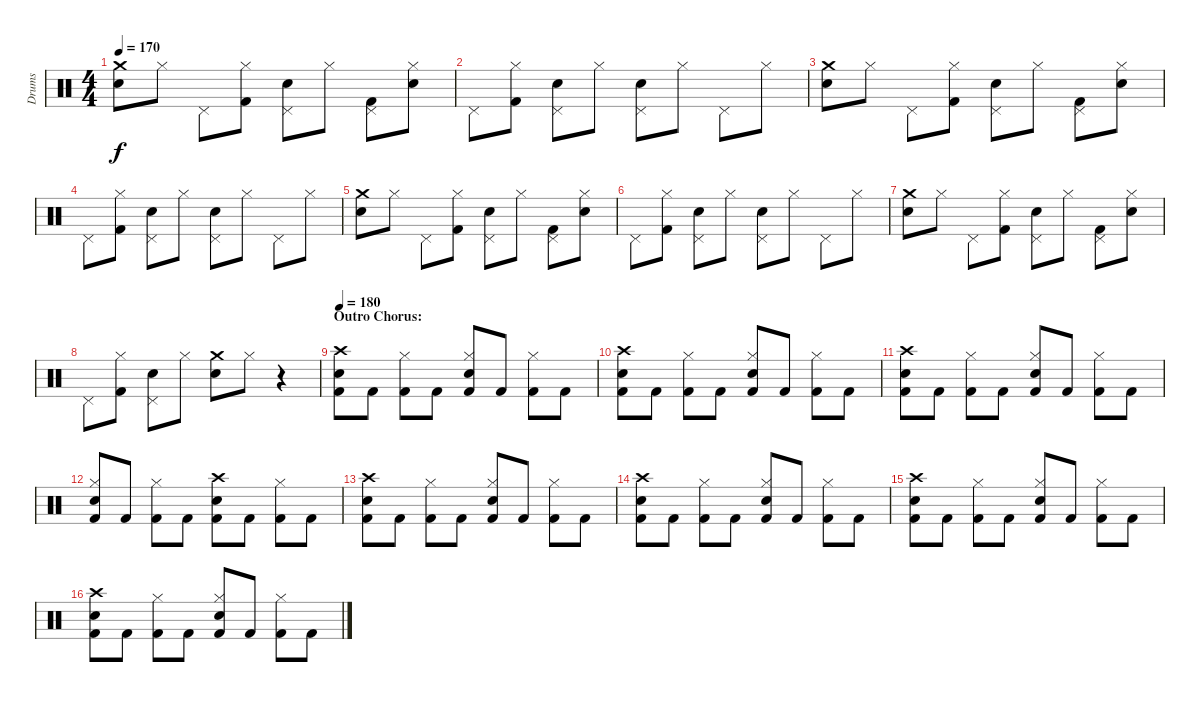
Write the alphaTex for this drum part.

\track ("Drums" "Drums") {instrument percussion}
\staff {score}
\articulation defaults
\ts (4 4)
\tempo 170
\clef neutral
\ks c
("Crash medium (hit)" "Electric Snare (hit)").8{dy f} "Hi-Hat (closed)".8 "Pedal Hi-Hat (hit)".8 ("Hi-Hat (closed)" "Kick (hit) 2").8 ("Pedal Hi-Hat (hit)" "Electric Snare (hit)").8 "Hi-Hat (closed)".8 ("Pedal Hi-Hat (hit)" "Kick (hit) 2").8 ("Hi-Hat (closed)" "Electric Snare (hit)").8 |
"Pedal Hi-Hat (hit)".8 ("Hi-Hat (closed)" "Kick (hit) 2").8 ("Pedal Hi-Hat (hit)" "Electric Snare (hit)").8 "Hi-Hat (closed)".8 ("Pedal Hi-Hat (hit)" "Electric Snare (hit)").8 "Hi-Hat (closed)".8 "Pedal Hi-Hat (hit)".8 "Hi-Hat (closed)".8 |
("Crash medium (hit)" "Electric Snare (hit)").8 "Hi-Hat (closed)".8 "Pedal Hi-Hat (hit)".8 ("Hi-Hat (closed)" "Kick (hit) 2").8 ("Pedal Hi-Hat (hit)" "Electric Snare (hit)").8 "Hi-Hat (closed)".8 ("Pedal Hi-Hat (hit)" "Kick (hit) 2").8 ("Hi-Hat (closed)" "Electric Snare (hit)").8 |
"Pedal Hi-Hat (hit)".8 ("Hi-Hat (closed)" "Kick (hit) 2").8 ("Pedal Hi-Hat (hit)" "Electric Snare (hit)").8 "Hi-Hat (closed)".8 ("Pedal Hi-Hat (hit)" "Electric Snare (hit)").8 "Hi-Hat (closed)".8 "Pedal Hi-Hat (hit)".8 "Hi-Hat (closed)".8 |
("Crash medium (hit)" "Electric Snare (hit)").8 "Hi-Hat (closed)".8 "Pedal Hi-Hat (hit)".8 ("Hi-Hat (closed)" "Kick (hit) 2").8 ("Pedal Hi-Hat (hit)" "Electric Snare (hit)").8 "Hi-Hat (closed)".8 ("Pedal Hi-Hat (hit)" "Kick (hit) 2").8 ("Hi-Hat (closed)" "Electric Snare (hit)").8 |
"Pedal Hi-Hat (hit)".8 ("Hi-Hat (closed)" "Kick (hit) 2").8 ("Pedal Hi-Hat (hit)" "Electric Snare (hit)").8 "Hi-Hat (closed)".8 ("Pedal Hi-Hat (hit)" "Electric Snare (hit)").8 "Hi-Hat (closed)".8 "Pedal Hi-Hat (hit)".8 "Hi-Hat (closed)".8 |
("Crash medium (hit)" "Electric Snare (hit)").8 "Hi-Hat (closed)".8 "Pedal Hi-Hat (hit)".8 ("Hi-Hat (closed)" "Kick (hit) 2").8 ("Pedal Hi-Hat (hit)" "Electric Snare (hit)").8 "Hi-Hat (closed)".8 ("Pedal Hi-Hat (hit)" "Kick (hit) 2").8 ("Hi-Hat (closed)" "Electric Snare (hit)").8 |
"Pedal Hi-Hat (hit)".8 ("Hi-Hat (closed)" "Kick (hit) 2").8 ("Pedal Hi-Hat (hit)" "Electric Snare (hit)").8 "Hi-Hat (closed)".8 ("Crash medium (hit)" "Electric Snare (hit)").8 "Hi-Hat (closed)".8 r.4 |
\section ("" "Outro Chorus:")
\tempo 180
("Crash high (hit)" "Electric Snare (hit)" "Kick (hit) 2").8 "Kick (hit) 2".8 ("Hi-Hat (closed)" "Kick (hit) 2").8 "Kick (hit) 2".8 ("Hi-Hat (closed)" "Electric Snare (hit)" "Kick (hit) 2").8 "Kick (hit) 2".8 ("Hi-Hat (closed)" "Kick (hit) 2").8 "Kick (hit) 2".8 |
("Crash high (hit)" "Electric Snare (hit)" "Kick (hit) 2").8 "Kick (hit) 2".8 ("Hi-Hat (closed)" "Kick (hit) 2").8 "Kick (hit) 2".8 ("Hi-Hat (closed)" "Electric Snare (hit)" "Kick (hit) 2").8 "Kick (hit) 2".8 ("Hi-Hat (closed)" "Kick (hit) 2").8 "Kick (hit) 2".8 |
("Crash high (hit)" "Electric Snare (hit)" "Kick (hit) 2").8 "Kick (hit) 2".8 ("Hi-Hat (closed)" "Kick (hit) 2").8 "Kick (hit) 2".8 ("Hi-Hat (closed)" "Electric Snare (hit)" "Kick (hit) 2").8 "Kick (hit) 2".8 ("Hi-Hat (closed)" "Kick (hit) 2").8 "Kick (hit) 2".8 |
("Hi-Hat (closed)" "Electric Snare (hit)" "Kick (hit) 2").8 "Kick (hit) 2".8 ("Hi-Hat (closed)" "Kick (hit) 2").8 "Kick (hit) 2".8 ("Crash high (hit)" "Electric Snare (hit)" "Kick (hit) 2").8 "Kick (hit) 2".8 ("Hi-Hat (closed)" "Kick (hit) 2").8 "Kick (hit) 2".8 |
("Crash high (hit)" "Electric Snare (hit)" "Kick (hit) 2").8 "Kick (hit) 2".8 ("Hi-Hat (closed)" "Kick (hit) 2").8 "Kick (hit) 2".8 ("Hi-Hat (closed)" "Electric Snare (hit)" "Kick (hit) 2").8 "Kick (hit) 2".8 ("Hi-Hat (closed)" "Kick (hit) 2").8 "Kick (hit) 2".8 |
("Crash high (hit)" "Electric Snare (hit)" "Kick (hit) 2").8 "Kick (hit) 2".8 ("Hi-Hat (closed)" "Kick (hit) 2").8 "Kick (hit) 2".8 ("Hi-Hat (closed)" "Electric Snare (hit)" "Kick (hit) 2").8 "Kick (hit) 2".8 ("Hi-Hat (closed)" "Kick (hit) 2").8 "Kick (hit) 2".8 |
("Crash high (hit)" "Electric Snare (hit)" "Kick (hit) 2").8 "Kick (hit) 2".8 ("Hi-Hat (closed)" "Kick (hit) 2").8 "Kick (hit) 2".8 ("Hi-Hat (closed)" "Electric Snare (hit)" "Kick (hit) 2").8 "Kick (hit) 2".8 ("Hi-Hat (closed)" "Kick (hit) 2").8 "Kick (hit) 2".8 |
("Crash high (hit)" "Electric Snare (hit)" "Kick (hit) 2").8 "Kick (hit) 2".8 ("Hi-Hat (closed)" "Kick (hit) 2").8 "Kick (hit) 2".8 ("Hi-Hat (closed)" "Electric Snare (hit)" "Kick (hit) 2").8 "Kick (hit) 2".8 ("Hi-Hat (closed)" "Kick (hit) 2").8 "Kick (hit) 2".8
